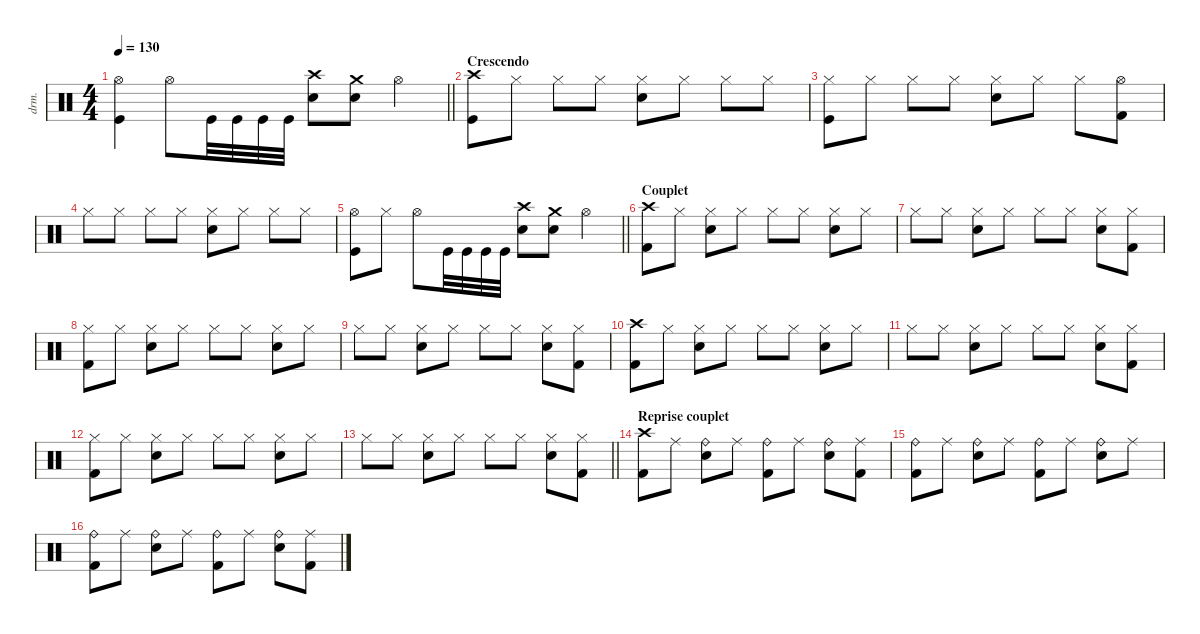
\defaultSystemsLayout 4
\hideDynamics
\bracketExtendMode nobrackets
\track ("Manouche" "drm.") {solo instrument percussion}
\staff {score}
\articulation defaults
\ts (4 4)
\tempo 130
\clef neutral
\barLineRight lightlight
\ks c
("Hi-Hat (open)" "Kick (hit)").4{dy f beam Down} "Hi-Hat (open)".8{beam Down} "Kick (hit)".32{beam Down} "Kick (hit)".32{beam Down} "Kick (hit)".32{beam Down} "Kick (hit)".32{beam Down} ("Snare (hit) 2" "Crash high (hit)").8{beam Down} ("Crash medium (hit)" "Snare (hit) 2").8{beam Down} "Hi-Hat (open)".4{beam Down} |
\section ("" "Crescendo")
("Crash high (hit)" "Kick (hit)").8{dy mp beam Down} "Hi-Hat (closed)".8{beam Down} "Hi-Hat (closed)".8{beam Down} "Hi-Hat (closed)".8{beam Down} ("Hi-Hat (closed)" "Snare (hit) 2").8{beam Down} "Hi-Hat (closed)".8{beam Down} "Hi-Hat (closed)".8{beam Down} "Hi-Hat (closed)".8{beam Down} |
("Hi-Hat (closed)" "Kick (hit)").8{beam Down} "Hi-Hat (closed)".8{beam Down} "Hi-Hat (closed)".8{beam Down} "Hi-Hat (closed)".8{beam Down} ("Hi-Hat (closed)" "Snare (hit) 2").8{beam Down} "Hi-Hat (closed)".8{beam Down} "Hi-Hat (closed)".8{beam Down} ("Hi-Hat (open)" "Kick (hit) 2").8{beam Down} |
"Hi-Hat (closed)".8{dy mf beam Down} "Hi-Hat (closed)".8{dy mp beam Down} "Hi-Hat (closed)".8{beam Down} "Hi-Hat (closed)".8{beam Down} ("Hi-Hat (closed)" "Snare (hit) 2").8{beam Down} "Hi-Hat (closed)".8{beam Down} "Hi-Hat (closed)".8{beam Down} "Hi-Hat (closed)".8{beam Down} |
\barLineRight lightlight
("Kick (hit)" "Hi-Hat (open)").8{dy f beam Down} "Hi-Hat (closed)".8{beam Down} "Hi-Hat (open)".8{beam Down} "Kick (hit)".32{beam Down} "Kick (hit)".32{beam Down} "Kick (hit)".32{beam Down} "Kick (hit)".32{beam Down} ("Snare (hit) 2" "Crash high (hit)").8{beam Down} ("Crash medium (hit)" "Snare (hit) 2").8{beam Down} "Hi-Hat (open)".4{beam Down} |
\section ("" "Couplet")
("Crash high (hit)" "Kick (hit) 2").8{beam Down} "Hi-Hat (closed)".8{dy mp beam Down} ("Hi-Hat (closed)" "Snare (hit) 2").8{dy f beam Down} "Hi-Hat (closed)".8{dy mp beam Down} "Hi-Hat (closed)".8{dy f beam Down} "Hi-Hat (closed)".8{dy mp beam Down} ("Hi-Hat (closed)" "Snare (hit) 2").8{dy f beam Down} "Hi-Hat (closed)".8{dy mp beam Down} |
"Hi-Hat (closed)".8{dy f beam Down} "Hi-Hat (closed)".8{dy mp beam Down} ("Hi-Hat (closed)" "Snare (hit) 2").8{dy f beam Down} "Hi-Hat (closed)".8{dy mp beam Down} "Hi-Hat (closed)".8{dy f beam Down} "Hi-Hat (closed)".8{dy mp beam Down} ("Hi-Hat (closed)" "Snare (hit) 2").8{dy f beam Down} ("Hi-Hat (closed)" "Kick (hit) 2").8{dy mp beam Down} |
("Hi-Hat (closed)" "Kick (hit) 2").8{beam Down} "Hi-Hat (closed)".8{beam Down} ("Hi-Hat (closed)" "Snare (hit) 2").8{dy f beam Down} "Hi-Hat (closed)".8{dy mp beam Down} "Hi-Hat (closed)".8{dy f beam Down} "Hi-Hat (closed)".8{dy mp beam Down} ("Hi-Hat (closed)" "Snare (hit) 2").8{dy f beam Down} "Hi-Hat (closed)".8{dy mp beam Down} |
"Hi-Hat (closed)".8{dy f beam Down} "Hi-Hat (closed)".8{dy mp beam Down} ("Hi-Hat (closed)" "Snare (hit) 2").8{dy f beam Down} "Hi-Hat (closed)".8{dy mp beam Down} "Hi-Hat (closed)".8{dy f beam Down} "Hi-Hat (closed)".8{dy mp beam Down} ("Hi-Hat (closed)" "Snare (hit) 2").8{dy f beam Down} ("Hi-Hat (closed)" "Kick (hit) 2").8{dy mp beam Down} |
("Crash high (hit)" "Kick (hit) 2").8{dy f beam Down} "Hi-Hat (closed)".8{dy mp beam Down} ("Hi-Hat (closed)" "Snare (hit) 2").8{dy f beam Down} "Hi-Hat (closed)".8{dy mp beam Down} "Hi-Hat (closed)".8{dy f beam Down} "Hi-Hat (closed)".8{dy mp beam Down} ("Hi-Hat (closed)" "Snare (hit) 2").8{dy f beam Down} "Hi-Hat (closed)".8{dy mp beam Down} |
"Hi-Hat (closed)".8{dy f beam Down} "Hi-Hat (closed)".8{dy mp beam Down} ("Hi-Hat (closed)" "Snare (hit) 2").8{dy f beam Down} "Hi-Hat (closed)".8{dy mp beam Down} "Hi-Hat (closed)".8{dy f beam Down} "Hi-Hat (closed)".8{dy mp beam Down} ("Hi-Hat (closed)" "Snare (hit) 2").8{dy f beam Down} ("Hi-Hat (closed)" "Kick (hit) 2").8{dy mp beam Down} |
("Hi-Hat (closed)" "Kick (hit) 2").8{beam Down} "Hi-Hat (closed)".8{beam Down} ("Hi-Hat (closed)" "Snare (hit) 2").8{dy f beam Down} "Hi-Hat (closed)".8{dy mp beam Down} "Hi-Hat (closed)".8{dy f beam Down} "Hi-Hat (closed)".8{dy mp beam Down} ("Hi-Hat (closed)" "Snare (hit) 2").8{dy f beam Down} "Hi-Hat (closed)".8{dy mp beam Down} |
\barLineRight lightlight "Hi-Hat (closed)".8{dy f beam Down} "Hi-Hat (closed)".8{dy mp beam Down}
("Hi-Hat (closed)" "Snare (hit) 2").8{dy f beam Down} "Hi-Hat (closed)".8{dy mp beam Down} "Hi-Hat (closed)".8{dy f beam Down} "Hi-Hat (closed)".8{dy mp beam Down} ("Hi-Hat (closed)" "Snare (hit) 2").8{dy f beam Down} ("Hi-Hat (closed)" "Kick (hit) 2").8{dy mp beam Down} |
\section ("" "Reprise couplet")
("Crash high (hit)" "Kick (hit) 2").8{dy f beam Down} "Ride (middle)".8{dy mf beam Down} ("Ride (bell)" "Snare (hit) 2").8{dy f beam Down} "Ride (middle)".8{dy mf beam Down} ("Ride (bell)" "Kick (hit) 2").8{dy f beam Down} "Ride (middle)".8{dy mf beam Down} ("Ride (bell)" "Snare (hit) 2").8{dy f beam Down} ("Ride (middle)" "Kick (hit) 2").8{dy mf beam Down} |
("Ride (bell)" "Kick (hit) 2").8{dy f beam Down} "Ride (middle)".8{dy mf beam Down} ("Ride (bell)" "Snare (hit) 2").8{dy f beam Down} "Ride (middle)".8{dy mf beam Down} ("Ride (bell)" "Kick (hit) 2").8{dy f beam Down} "Ride (middle)".8{dy mf beam Down} ("Ride (bell)" "Snare (hit) 2").8{dy f beam Down} "Ride (middle)".8{dy mf beam Down} |
("Ride (bell)" "Kick (hit) 2").8{dy f beam Down} "Ride (middle)".8{dy mf beam Down} ("Ride (bell)" "Snare (hit) 2").8{dy f beam Down} "Ride (middle)".8{dy mf beam Down} ("Ride (bell)" "Kick (hit) 2").8{dy f beam Down} "Ride (middle)".8{dy mf beam Down} ("Ride (bell)" "Snare (hit) 2").8{dy f beam Down} ("Ride (middle)" "Kick (hit) 2").8{dy mf beam Down}
